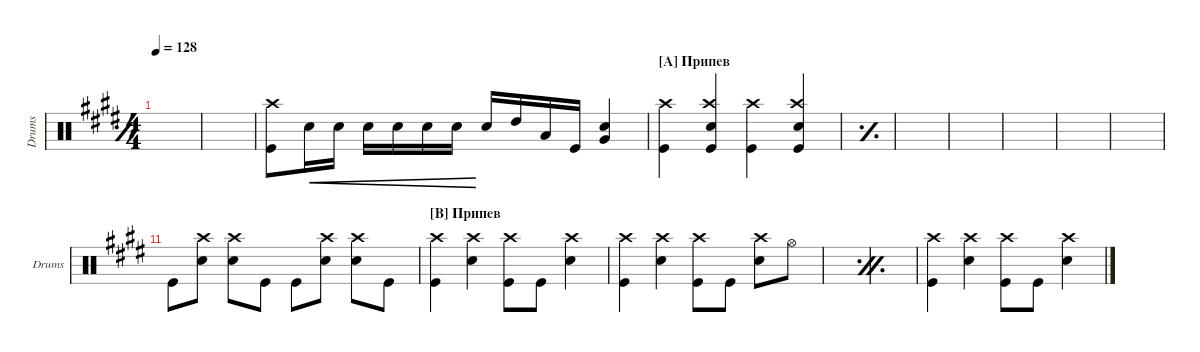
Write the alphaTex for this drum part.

\defaultSystemsLayout 4
\hideDynamics
\bracketExtendMode groupsimilarinstruments
\singleTrackTrackNamePolicy allsystems
\multiTrackTrackNamePolicy allsystems
\otherSystemsTrackNameOrientation horizontal
\defaultBarNumberDisplay FirstOfSystem
\track ("Drumkit" "Drums") {instrument percussion}
\staff {score}
\articulation defaults
\ts (4 4)
\tempo 128
\clef neutral
\simile simple
\ks e
|
|
("Kick (hit)" "Crash high (hit)").8 "Snare (hit) 2".16{cre} "Snare (hit) 2".16{cre} "Snare (hit) 2".16{cre} "Snare (hit) 2".16{cre} "Snare (hit) 2".16{cre} "Snare (hit) 2".16{cre} "Snare (hit) 2".16 "High Tom (hit)".16 "Low Tom (hit)".16 "Kick (hit)".16 ("Snare (hit) 2" "Very Low Tom (hit)").4 |
\section ("A" "Припев")
("Kick (hit)" "Crash high (hit)").4 ("Kick (hit)" "Crash high (hit)" "Snare (hit) 2").4 ("Kick (hit)" "Crash high (hit)").4 ("Kick (hit)" "Crash high (hit)" "Snare (hit) 2").4 |
\simile simple
|
|
|
|
|
|
\simile none "Kick (hit)".8
("Snare (hit) 2" "Crash high (hit)").8 ("Snare (hit) 2" "Crash high (hit)").8 "Kick (hit)".8 "Kick (hit)".8 ("Snare (hit) 2" "Crash high (hit)").8 ("Snare (hit) 2" "Crash high (hit)").8 "Kick (hit)".8 |
\section ("B" "Припев")
("Kick (hit)" "Crash high (hit)").4 ("Snare (hit) 2" "Crash high (hit)").4 ("Kick (hit)" "Crash high (hit)").8 "Kick (hit)".8 ("Snare (hit) 2" "Crash high (hit)").4 |
("Kick (hit)" "Crash high (hit)").4 ("Snare (hit) 2" "Crash high (hit)").4 ("Kick (hit)" "Crash high (hit)").8 "Kick (hit)".8 ("Snare (hit) 2" "Crash high (hit)").8 "Hi-Hat (open)".8 |
\simile firstofdouble
|
\simile secondofdouble
|
\simile none
("Kick (hit)" "Crash high (hit)").4 ("Snare (hit) 2" "Crash high (hit)").4 ("Kick (hit)" "Crash high (hit)").8 "Kick (hit)".8 ("Snare (hit) 2" "Crash high (hit)").4
